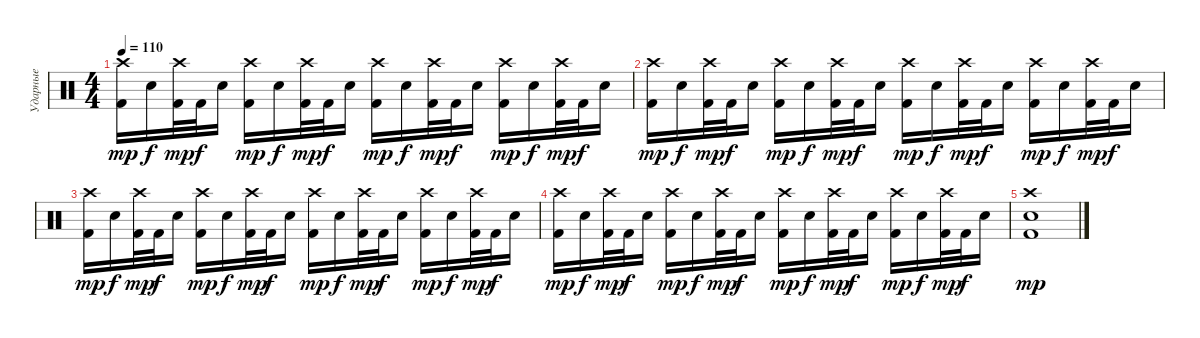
\track ("Ударные" "Ударные") {instrument percussion}
\staff {score}
\articulation defaults
\ts (4 4)
\tempo 110
\clef neutral
\ks c
("Crash high (hit)" "Kick (hit) 2").16{dy mp} "Electric Snare (hit)".16{dy f} ("Crash high (hit)" "Kick (hit) 2").32{dy mp} "Kick (hit) 2".32{dy f} "Electric Snare (hit)".16 ("Crash high (hit)" "Kick (hit) 2").16{dy mp} "Electric Snare (hit)".16{dy f} ("Crash high (hit)" "Kick (hit) 2").32{dy mp} "Kick (hit) 2".32{dy f} "Electric Snare (hit)".16 ("Crash high (hit)" "Kick (hit) 2").16{dy mp} "Electric Snare (hit)".16{dy f} ("Crash high (hit)" "Kick (hit) 2").32{dy mp} "Kick (hit) 2".32{dy f} "Electric Snare (hit)".16 ("Crash high (hit)" "Kick (hit) 2").16{dy mp} "Electric Snare (hit)".16{dy f} ("Crash high (hit)" "Kick (hit) 2").32{dy mp} "Kick (hit) 2".32{dy f} "Electric Snare (hit)".16 |
("Crash high (hit)" "Kick (hit) 2").16{dy mp} "Electric Snare (hit)".16{dy f} ("Crash high (hit)" "Kick (hit) 2").32{dy mp} "Kick (hit) 2".32{dy f} "Electric Snare (hit)".16 ("Crash high (hit)" "Kick (hit) 2").16{dy mp} "Electric Snare (hit)".16{dy f} ("Crash high (hit)" "Kick (hit) 2").32{dy mp} "Kick (hit) 2".32{dy f} "Electric Snare (hit)".16 ("Crash high (hit)" "Kick (hit) 2").16{dy mp} "Electric Snare (hit)".16{dy f} ("Crash high (hit)" "Kick (hit) 2").32{dy mp} "Kick (hit) 2".32{dy f} "Electric Snare (hit)".16 ("Crash high (hit)" "Kick (hit) 2").16{dy mp} "Electric Snare (hit)".16{dy f} ("Crash high (hit)" "Kick (hit) 2").32{dy mp} "Kick (hit) 2".32{dy f} "Electric Snare (hit)".16 |
("Crash high (hit)" "Kick (hit) 2").16{dy mp} "Electric Snare (hit)".16{dy f} ("Crash high (hit)" "Kick (hit) 2").32{dy mp} "Kick (hit) 2".32{dy f} "Electric Snare (hit)".16 ("Crash high (hit)" "Kick (hit) 2").16{dy mp} "Electric Snare (hit)".16{dy f} ("Crash high (hit)" "Kick (hit) 2").32{dy mp} "Kick (hit) 2".32{dy f} "Electric Snare (hit)".16 ("Crash high (hit)" "Kick (hit) 2").16{dy mp} "Electric Snare (hit)".16{dy f} ("Crash high (hit)" "Kick (hit) 2").32{dy mp} "Kick (hit) 2".32{dy f} "Electric Snare (hit)".16 ("Crash high (hit)" "Kick (hit) 2").16{dy mp} "Electric Snare (hit)".16{dy f} ("Crash high (hit)" "Kick (hit) 2").32{dy mp} "Kick (hit) 2".32{dy f} "Electric Snare (hit)".16 |
("Crash high (hit)" "Kick (hit) 2").16{dy mp} "Electric Snare (hit)".16{dy f} ("Crash high (hit)" "Kick (hit) 2").32{dy mp} "Kick (hit) 2".32{dy f} "Electric Snare (hit)".16 ("Crash high (hit)" "Kick (hit) 2").16{dy mp} "Electric Snare (hit)".16{dy f} ("Crash high (hit)" "Kick (hit) 2").32{dy mp} "Kick (hit) 2".32{dy f} "Electric Snare (hit)".16 ("Crash high (hit)" "Kick (hit) 2").16{dy mp} "Electric Snare (hit)".16{dy f} ("Crash high (hit)" "Kick (hit) 2").32{dy mp} "Kick (hit) 2".32{dy f} "Electric Snare (hit)".16 ("Crash high (hit)" "Kick (hit) 2").16{dy mp} "Electric Snare (hit)".16{dy f} ("Crash high (hit)" "Kick (hit) 2").32{dy mp} "Kick (hit) 2".32{dy f} "Electric Snare (hit)".16 |
("Crash high (hit)" "Electric Snare (hit)" "Kick (hit) 2").1{dy mp}
